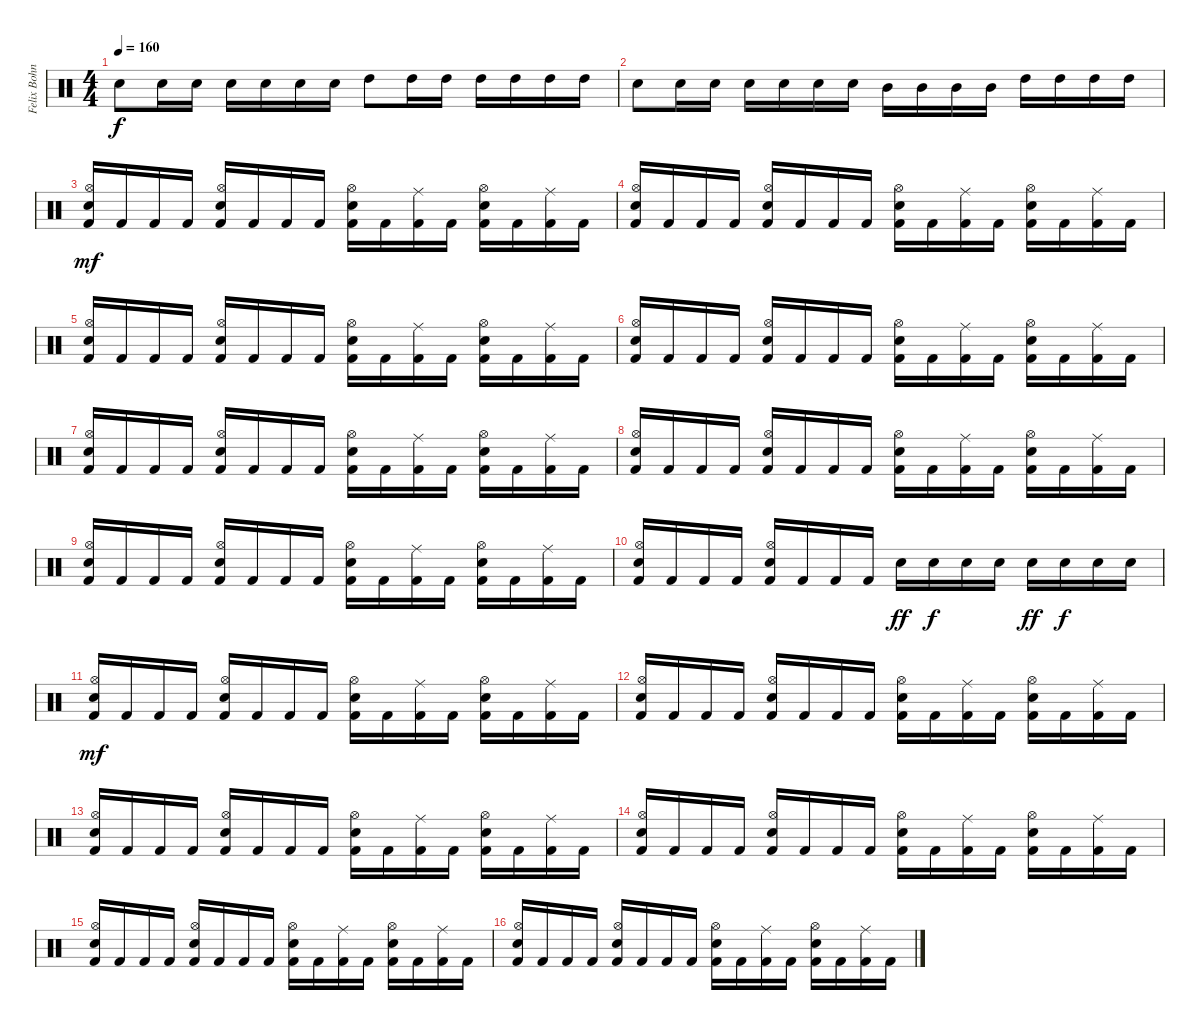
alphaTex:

\track ("Felix Bohnke" "Felix Bohn") {instrument percussion}
\staff {score}
\articulation defaults
\ts (4 4)
\tempo 160
\clef neutral
\ks c "Electric Snare (hit)".8{dy f} "Electric Snare (hit)".16 "Electric Snare (hit)".16 "Electric Snare (hit)".16 "Electric Snare (hit)".16 "Electric Snare (hit)".16 "Electric Snare (hit)".16 "High Tom (hit)".8 "High Tom (hit)".16 "High Tom (hit)".16 "High Tom (hit)".16 "High Tom (hit)".16 "High Tom (hit)".16 "High Tom (hit)".16
|
"Electric Snare (hit)".8 "Electric Snare (hit)".16 "Electric Snare (hit)".16 "Electric Snare (hit)".16 "Electric Snare (hit)".16 "Electric Snare (hit)".16 "Electric Snare (hit)".16 "Mid Tom (hit)".16 "Mid Tom (hit)".16 "Mid Tom (hit)".16 "Mid Tom (hit)".16 "High Tom (hit)".16 "High Tom (hit)".16 "High Tom (hit)".16 "High Tom (hit)".16 |
("Hi-Hat (open)" "Electric Snare (hit)" "Kick (hit) 2").16{dy mf} "Kick (hit) 2".16 "Kick (hit) 2".16 "Kick (hit) 2".16 ("Hi-Hat (open)" "Electric Snare (hit)" "Kick (hit) 2").16 "Kick (hit) 2".16 "Kick (hit) 2".16 "Kick (hit) 2".16 ("Hi-Hat (open)" "Electric Snare (hit)" "Kick (hit) 2").16 "Kick (hit) 2".16 ("Ride (middle)" "Kick (hit) 2").16 "Kick (hit) 2".16 ("Hi-Hat (open)" "Electric Snare (hit)" "Kick (hit) 2").16 "Kick (hit) 2".16 ("Ride (middle)" "Kick (hit) 2").16 "Kick (hit) 2".16 |
("Hi-Hat (open)" "Electric Snare (hit)" "Kick (hit) 2").16 "Kick (hit) 2".16 "Kick (hit) 2".16 "Kick (hit) 2".16 ("Hi-Hat (open)" "Electric Snare (hit)" "Kick (hit) 2").16 "Kick (hit) 2".16 "Kick (hit) 2".16 "Kick (hit) 2".16 ("Hi-Hat (open)" "Electric Snare (hit)" "Kick (hit) 2").16 "Kick (hit) 2".16 ("Ride (middle)" "Kick (hit) 2").16 "Kick (hit) 2".16 ("Hi-Hat (open)" "Electric Snare (hit)" "Kick (hit) 2").16 "Kick (hit) 2".16 ("Ride (middle)" "Kick (hit) 2").16 "Kick (hit) 2".16 |
("Hi-Hat (open)" "Electric Snare (hit)" "Kick (hit) 2").16 "Kick (hit) 2".16 "Kick (hit) 2".16 "Kick (hit) 2".16 ("Hi-Hat (open)" "Electric Snare (hit)" "Kick (hit) 2").16 "Kick (hit) 2".16 "Kick (hit) 2".16 "Kick (hit) 2".16 ("Hi-Hat (open)" "Electric Snare (hit)" "Kick (hit) 2").16 "Kick (hit) 2".16 ("Ride (middle)" "Kick (hit) 2").16 "Kick (hit) 2".16 ("Hi-Hat (open)" "Electric Snare (hit)" "Kick (hit) 2").16 "Kick (hit) 2".16 ("Ride (middle)" "Kick (hit) 2").16 "Kick (hit) 2".16 |
("Hi-Hat (open)" "Electric Snare (hit)" "Kick (hit) 2").16 "Kick (hit) 2".16 "Kick (hit) 2".16 "Kick (hit) 2".16 ("Hi-Hat (open)" "Electric Snare (hit)" "Kick (hit) 2").16 "Kick (hit) 2".16 "Kick (hit) 2".16 "Kick (hit) 2".16 ("Hi-Hat (open)" "Electric Snare (hit)" "Kick (hit) 2").16 "Kick (hit) 2".16 ("Ride (middle)" "Kick (hit) 2").16 "Kick (hit) 2".16 ("Hi-Hat (open)" "Electric Snare (hit)" "Kick (hit) 2").16 "Kick (hit) 2".16 ("Ride (middle)" "Kick (hit) 2").16 "Kick (hit) 2".16 |
("Hi-Hat (open)" "Electric Snare (hit)" "Kick (hit) 2").16 "Kick (hit) 2".16 "Kick (hit) 2".16 "Kick (hit) 2".16 ("Hi-Hat (open)" "Electric Snare (hit)" "Kick (hit) 2").16 "Kick (hit) 2".16 "Kick (hit) 2".16 "Kick (hit) 2".16 ("Hi-Hat (open)" "Electric Snare (hit)" "Kick (hit) 2").16 "Kick (hit) 2".16 ("Ride (middle)" "Kick (hit) 2").16 "Kick (hit) 2".16 ("Hi-Hat (open)" "Electric Snare (hit)" "Kick (hit) 2").16 "Kick (hit) 2".16 ("Ride (middle)" "Kick (hit) 2").16 "Kick (hit) 2".16 |
("Hi-Hat (open)" "Electric Snare (hit)" "Kick (hit) 2").16 "Kick (hit) 2".16 "Kick (hit) 2".16 "Kick (hit) 2".16 ("Hi-Hat (open)" "Electric Snare (hit)" "Kick (hit) 2").16 "Kick (hit) 2".16 "Kick (hit) 2".16 "Kick (hit) 2".16 ("Hi-Hat (open)" "Electric Snare (hit)" "Kick (hit) 2").16 "Kick (hit) 2".16 ("Ride (middle)" "Kick (hit) 2").16 "Kick (hit) 2".16 ("Hi-Hat (open)" "Electric Snare (hit)" "Kick (hit) 2").16 "Kick (hit) 2".16 ("Ride (middle)" "Kick (hit) 2").16 "Kick (hit) 2".16 |
("Hi-Hat (open)" "Electric Snare (hit)" "Kick (hit) 2").16 "Kick (hit) 2".16 "Kick (hit) 2".16 "Kick (hit) 2".16 ("Hi-Hat (open)" "Electric Snare (hit)" "Kick (hit) 2").16 "Kick (hit) 2".16 "Kick (hit) 2".16 "Kick (hit) 2".16 ("Hi-Hat (open)" "Electric Snare (hit)" "Kick (hit) 2").16 "Kick (hit) 2".16 ("Ride (middle)" "Kick (hit) 2").16 "Kick (hit) 2".16 ("Hi-Hat (open)" "Electric Snare (hit)" "Kick (hit) 2").16 "Kick (hit) 2".16 ("Ride (middle)" "Kick (hit) 2").16 "Kick (hit) 2".16 |
("Hi-Hat (open)" "Electric Snare (hit)" "Kick (hit) 2").16 "Kick (hit) 2".16 "Kick (hit) 2".16 "Kick (hit) 2".16 ("Hi-Hat (open)" "Electric Snare (hit)" "Kick (hit) 2").16 "Kick (hit) 2".16 "Kick (hit) 2".16 "Kick (hit) 2".16 "Electric Snare (hit)".16{dy ff} "Electric Snare (hit)".16{dy f} "Electric Snare (hit)".16 "Electric Snare (hit)".16 "Electric Snare (hit)".16{dy ff} "Electric Snare (hit)".16{dy f} "Electric Snare (hit)".16 "Electric Snare (hit)".16 |
("Hi-Hat (open)" "Electric Snare (hit)" "Kick (hit) 2").16{dy mf} "Kick (hit) 2".16 "Kick (hit) 2".16 "Kick (hit) 2".16 ("Hi-Hat (open)" "Electric Snare (hit)" "Kick (hit) 2").16 "Kick (hit) 2".16 "Kick (hit) 2".16 "Kick (hit) 2".16 ("Hi-Hat (open)" "Electric Snare (hit)" "Kick (hit) 2").16 "Kick (hit) 2".16 ("Ride (middle)" "Kick (hit) 2").16 "Kick (hit) 2".16 ("Hi-Hat (open)" "Electric Snare (hit)" "Kick (hit) 2").16 "Kick (hit) 2".16 ("Ride (middle)" "Kick (hit) 2").16 "Kick (hit) 2".16 |
("Hi-Hat (open)" "Electric Snare (hit)" "Kick (hit) 2").16 "Kick (hit) 2".16 "Kick (hit) 2".16 "Kick (hit) 2".16 ("Hi-Hat (open)" "Electric Snare (hit)" "Kick (hit) 2").16 "Kick (hit) 2".16 "Kick (hit) 2".16 "Kick (hit) 2".16 ("Hi-Hat (open)" "Electric Snare (hit)" "Kick (hit) 2").16 "Kick (hit) 2".16 ("Ride (middle)" "Kick (hit) 2").16 "Kick (hit) 2".16 ("Hi-Hat (open)" "Electric Snare (hit)" "Kick (hit) 2").16 "Kick (hit) 2".16 ("Ride (middle)" "Kick (hit) 2").16 "Kick (hit) 2".16 |
("Hi-Hat (open)" "Electric Snare (hit)" "Kick (hit) 2").16 "Kick (hit) 2".16 "Kick (hit) 2".16 "Kick (hit) 2".16 ("Hi-Hat (open)" "Electric Snare (hit)" "Kick (hit) 2").16 "Kick (hit) 2".16 "Kick (hit) 2".16 "Kick (hit) 2".16 ("Hi-Hat (open)" "Electric Snare (hit)" "Kick (hit) 2").16 "Kick (hit) 2".16 ("Ride (middle)" "Kick (hit) 2").16 "Kick (hit) 2".16 ("Hi-Hat (open)" "Electric Snare (hit)" "Kick (hit) 2").16 "Kick (hit) 2".16 ("Ride (middle)" "Kick (hit) 2").16 "Kick (hit) 2".16 |
("Hi-Hat (open)" "Electric Snare (hit)" "Kick (hit) 2").16 "Kick (hit) 2".16 "Kick (hit) 2".16 "Kick (hit) 2".16 ("Hi-Hat (open)" "Electric Snare (hit)" "Kick (hit) 2").16 "Kick (hit) 2".16 "Kick (hit) 2".16 "Kick (hit) 2".16 ("Hi-Hat (open)" "Electric Snare (hit)" "Kick (hit) 2").16 "Kick (hit) 2".16 ("Ride (middle)" "Kick (hit) 2").16 "Kick (hit) 2".16 ("Hi-Hat (open)" "Electric Snare (hit)" "Kick (hit) 2").16 "Kick (hit) 2".16 ("Ride (middle)" "Kick (hit) 2").16 "Kick (hit) 2".16 |
("Hi-Hat (open)" "Electric Snare (hit)" "Kick (hit) 2").16 "Kick (hit) 2".16 "Kick (hit) 2".16 "Kick (hit) 2".16 ("Hi-Hat (open)" "Electric Snare (hit)" "Kick (hit) 2").16 "Kick (hit) 2".16 "Kick (hit) 2".16 "Kick (hit) 2".16 ("Hi-Hat (open)" "Electric Snare (hit)" "Kick (hit) 2").16 "Kick (hit) 2".16 ("Ride (middle)" "Kick (hit) 2").16 "Kick (hit) 2".16 ("Hi-Hat (open)" "Electric Snare (hit)" "Kick (hit) 2").16 "Kick (hit) 2".16 ("Ride (middle)" "Kick (hit) 2").16 "Kick (hit) 2".16 |
("Hi-Hat (open)" "Electric Snare (hit)" "Kick (hit) 2").16 "Kick (hit) 2".16 "Kick (hit) 2".16 "Kick (hit) 2".16 ("Hi-Hat (open)" "Electric Snare (hit)" "Kick (hit) 2").16 "Kick (hit) 2".16 "Kick (hit) 2".16 "Kick (hit) 2".16 ("Hi-Hat (open)" "Electric Snare (hit)" "Kick (hit) 2").16 "Kick (hit) 2".16 ("Ride (middle)" "Kick (hit) 2").16 "Kick (hit) 2".16 ("Hi-Hat (open)" "Electric Snare (hit)" "Kick (hit) 2").16 "Kick (hit) 2".16 ("Ride (middle)" "Kick (hit) 2").16 "Kick (hit) 2".16
